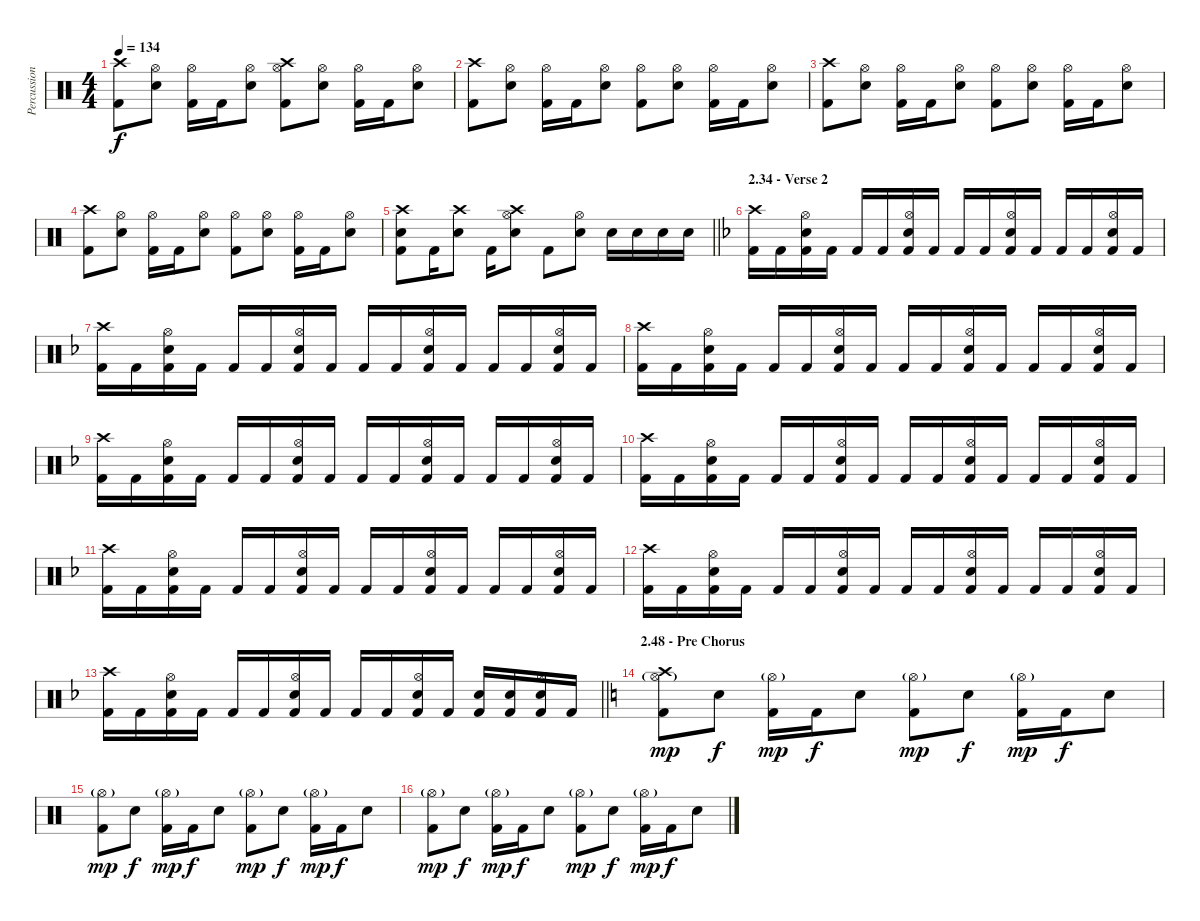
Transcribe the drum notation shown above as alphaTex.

\track ("Percussion" "Percussion") {instrument percussion}
\staff {score}
\articulation defaults
\ts (4 4)
\tempo 134
\clef neutral
\ks aminor
("Crash high (hit)" "Kick (hit) 2").8{dy f} ("Hi-Hat (open)" "Electric Snare (hit)").8 ("Hi-Hat (open)" "Kick (hit) 2").16 "Kick (hit) 2".16 ("Hi-Hat (open)" "Electric Snare (hit)").8 ("Crash high (hit)" "Hi-Hat (open)" "Kick (hit) 2").8 ("Hi-Hat (open)" "Electric Snare (hit)").8 ("Hi-Hat (open)" "Kick (hit) 2").16 "Kick (hit) 2".16 ("Hi-Hat (open)" "Electric Snare (hit)").8 |
("Crash high (hit)" "Kick (hit) 2").8 ("Hi-Hat (open)" "Electric Snare (hit)").8 ("Hi-Hat (open)" "Kick (hit) 2").16 "Kick (hit) 2".16 ("Hi-Hat (open)" "Electric Snare (hit)").8 ("Hi-Hat (open)" "Kick (hit) 2").8 ("Hi-Hat (open)" "Electric Snare (hit)").8 ("Hi-Hat (open)" "Kick (hit) 2").16 "Kick (hit) 2".16 ("Hi-Hat (open)" "Electric Snare (hit)").8 |
("Crash high (hit)" "Kick (hit) 2").8 ("Hi-Hat (open)" "Electric Snare (hit)").8 ("Hi-Hat (open)" "Kick (hit) 2").16 "Kick (hit) 2".16 ("Hi-Hat (open)" "Electric Snare (hit)").8 ("Hi-Hat (open)" "Kick (hit) 2").8 ("Hi-Hat (open)" "Electric Snare (hit)").8 ("Hi-Hat (open)" "Kick (hit) 2").16 "Kick (hit) 2".16 ("Hi-Hat (open)" "Electric Snare (hit)").8 |
("Crash high (hit)" "Kick (hit) 2").8 ("Hi-Hat (open)" "Electric Snare (hit)").8 ("Hi-Hat (open)" "Kick (hit) 2").16 "Kick (hit) 2".16 ("Hi-Hat (open)" "Electric Snare (hit)").8 ("Hi-Hat (open)" "Kick (hit) 2").8 ("Hi-Hat (open)" "Electric Snare (hit)").8 ("Hi-Hat (open)" "Kick (hit) 2").16 "Kick (hit) 2".16 ("Hi-Hat (open)" "Electric Snare (hit)").8 |
\barLineRight lightlight
("Crash high (hit)" "Electric Snare (hit)" "Kick (hit) 2").8 "Kick (hit) 2".16 ("Crash high (hit)" "Electric Snare (hit)").8 "Kick (hit) 2".16 ("Crash high (hit)" "Hi-Hat (open)" "Electric Snare (hit)").8 "Kick (hit) 2".8 ("Hi-Hat (open)" "Electric Snare (hit)").8 "Electric Snare (hit)".16 "Electric Snare (hit)".16 "Electric Snare (hit)".16 "Electric Snare (hit)".16 |
\section ("" "2.34 - Verse 2")
\ks dminor
("Crash high (hit)" "Kick (hit) 2").16 "Kick (hit) 2".16 ("Hi-Hat (open)" "Electric Snare (hit)" "Kick (hit) 2").16 "Kick (hit) 2".16 "Kick (hit) 2".16 "Kick (hit) 2".16 ("Hi-Hat (open)" "Electric Snare (hit)" "Kick (hit) 2").16 "Kick (hit) 2".16 "Kick (hit) 2".16 "Kick (hit) 2".16 ("Hi-Hat (open)" "Electric Snare (hit)" "Kick (hit) 2").16 "Kick (hit) 2".16 "Kick (hit) 2".16 "Kick (hit) 2".16 ("Hi-Hat (open)" "Electric Snare (hit)" "Kick (hit) 2").16 "Kick (hit) 2".16 |
("Crash high (hit)" "Kick (hit) 2").16 "Kick (hit) 2".16 ("Hi-Hat (open)" "Electric Snare (hit)" "Kick (hit) 2").16 "Kick (hit) 2".16 "Kick (hit) 2".16 "Kick (hit) 2".16 ("Hi-Hat (open)" "Electric Snare (hit)" "Kick (hit) 2").16 "Kick (hit) 2".16 "Kick (hit) 2".16 "Kick (hit) 2".16 ("Hi-Hat (open)" "Electric Snare (hit)" "Kick (hit) 2").16 "Kick (hit) 2".16 "Kick (hit) 2".16 "Kick (hit) 2".16 ("Hi-Hat (open)" "Electric Snare (hit)" "Kick (hit) 2").16 "Kick (hit) 2".16 |
("Crash high (hit)" "Kick (hit) 2").16 "Kick (hit) 2".16 ("Hi-Hat (open)" "Electric Snare (hit)" "Kick (hit) 2").16 "Kick (hit) 2".16 "Kick (hit) 2".16 "Kick (hit) 2".16 ("Hi-Hat (open)" "Electric Snare (hit)" "Kick (hit) 2").16 "Kick (hit) 2".16 "Kick (hit) 2".16 "Kick (hit) 2".16 ("Hi-Hat (open)" "Electric Snare (hit)" "Kick (hit) 2").16 "Kick (hit) 2".16 "Kick (hit) 2".16 "Kick (hit) 2".16 ("Hi-Hat (open)" "Electric Snare (hit)" "Kick (hit) 2").16 "Kick (hit) 2".16 |
("Crash high (hit)" "Kick (hit) 2").16 "Kick (hit) 2".16 ("Hi-Hat (open)" "Electric Snare (hit)" "Kick (hit) 2").16 "Kick (hit) 2".16 "Kick (hit) 2".16 "Kick (hit) 2".16 ("Hi-Hat (open)" "Electric Snare (hit)" "Kick (hit) 2").16 "Kick (hit) 2".16 "Kick (hit) 2".16 "Kick (hit) 2".16 ("Hi-Hat (open)" "Electric Snare (hit)" "Kick (hit) 2").16 "Kick (hit) 2".16 "Kick (hit) 2".16 "Kick (hit) 2".16 ("Hi-Hat (open)" "Electric Snare (hit)" "Kick (hit) 2").16 "Kick (hit) 2".16 |
("Crash high (hit)" "Kick (hit) 2").16 "Kick (hit) 2".16 ("Hi-Hat (open)" "Electric Snare (hit)" "Kick (hit) 2").16 "Kick (hit) 2".16 "Kick (hit) 2".16 "Kick (hit) 2".16 ("Hi-Hat (open)" "Electric Snare (hit)" "Kick (hit) 2").16 "Kick (hit) 2".16 "Kick (hit) 2".16 "Kick (hit) 2".16 ("Hi-Hat (open)" "Electric Snare (hit)" "Kick (hit) 2").16 "Kick (hit) 2".16 "Kick (hit) 2".16 "Kick (hit) 2".16 ("Hi-Hat (open)" "Electric Snare (hit)" "Kick (hit) 2").16 "Kick (hit) 2".16 |
("Crash high (hit)" "Kick (hit) 2").16 "Kick (hit) 2".16 ("Hi-Hat (open)" "Electric Snare (hit)" "Kick (hit) 2").16 "Kick (hit) 2".16 "Kick (hit) 2".16 "Kick (hit) 2".16 ("Hi-Hat (open)" "Electric Snare (hit)" "Kick (hit) 2").16 "Kick (hit) 2".16 "Kick (hit) 2".16 "Kick (hit) 2".16 ("Hi-Hat (open)" "Electric Snare (hit)" "Kick (hit) 2").16 "Kick (hit) 2".16 "Kick (hit) 2".16 "Kick (hit) 2".16 ("Hi-Hat (open)" "Electric Snare (hit)" "Kick (hit) 2").16 "Kick (hit) 2".16 |
("Crash high (hit)" "Kick (hit) 2").16 "Kick (hit) 2".16 ("Hi-Hat (open)" "Electric Snare (hit)" "Kick (hit) 2").16 "Kick (hit) 2".16 "Kick (hit) 2".16 "Kick (hit) 2".16 ("Hi-Hat (open)" "Electric Snare (hit)" "Kick (hit) 2").16 "Kick (hit) 2".16 "Kick (hit) 2".16 "Kick (hit) 2".16 ("Hi-Hat (open)" "Electric Snare (hit)" "Kick (hit) 2").16 "Kick (hit) 2".16 "Kick (hit) 2".16 "Kick (hit) 2".16 ("Hi-Hat (open)" "Electric Snare (hit)" "Kick (hit) 2").16 "Kick (hit) 2".16 |
\barLineRight lightlight
("Crash high (hit)" "Kick (hit) 2").16 "Kick (hit) 2".16 ("Hi-Hat (open)" "Electric Snare (hit)" "Kick (hit) 2").16 "Kick (hit) 2".16 "Kick (hit) 2".16 "Kick (hit) 2".16 ("Hi-Hat (open)" "Electric Snare (hit)" "Kick (hit) 2").16 "Kick (hit) 2".16 "Kick (hit) 2".16 "Kick (hit) 2".16 ("Hi-Hat (open)" "Electric Snare (hit)" "Kick (hit) 2").16 "Kick (hit) 2".16 ("Electric Snare (hit)" "Kick (hit) 2").16 ("Electric Snare (hit)" "Kick (hit) 2").16 ("Hi-Hat (open)" "Electric Snare (hit)" "Kick (hit) 2").16 "Kick (hit) 2".16 |
\section ("" "2.48 - Pre Chorus")
\ks aminor
("Crash high (hit)" "Hi-Hat (open)"{g} "Kick (hit) 2").8{dy mp} "Electric Snare (hit)".8{dy f} ("Hi-Hat (open)"{g} "Kick (hit) 2").16{dy mp} "Kick (hit) 2".16{dy f} "Electric Snare (hit)".8 ("Hi-Hat (open)"{g} "Kick (hit) 2").8{dy mp} "Electric Snare (hit)".8{dy f} ("Hi-Hat (open)"{g} "Kick (hit) 2").16{dy mp} "Kick (hit) 2".16{dy f} "Electric Snare (hit)".8 |
("Hi-Hat (open)"{g} "Kick (hit) 2").8{dy mp} "Electric Snare (hit)".8{dy f} ("Hi-Hat (open)"{g} "Kick (hit) 2").16{dy mp} "Kick (hit) 2".16{dy f} "Electric Snare (hit)".8 ("Hi-Hat (open)"{g} "Kick (hit) 2").8{dy mp} "Electric Snare (hit)".8{dy f} ("Hi-Hat (open)"{g} "Kick (hit) 2").16{dy mp} "Kick (hit) 2".16{dy f} "Electric Snare (hit)".8 |
("Hi-Hat (open)"{g} "Kick (hit) 2").8{dy mp} "Electric Snare (hit)".8{dy f} ("Hi-Hat (open)"{g} "Kick (hit) 2").16{dy mp} "Kick (hit) 2".16{dy f} "Electric Snare (hit)".8 ("Hi-Hat (open)"{g} "Kick (hit) 2").8{dy mp} "Electric Snare (hit)".8{dy f} ("Hi-Hat (open)"{g} "Kick (hit) 2").16{dy mp} "Kick (hit) 2".16{dy f} "Electric Snare (hit)".8
